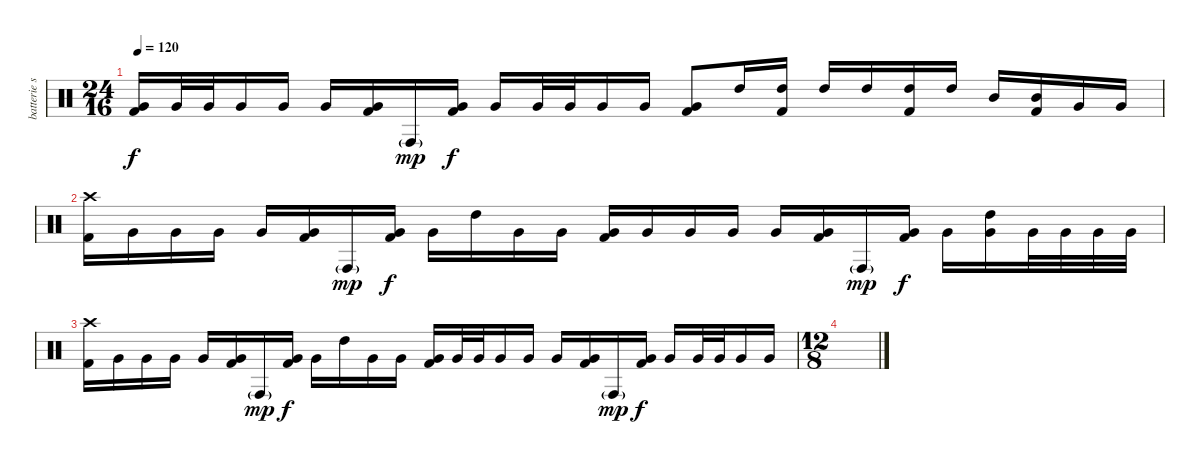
\track ("batterie sur toms" "batterie s") {instrument percussion}
\staff {score}
\articulation defaults
\ts (24 16)
\tempo 120
\clef neutral
\ks c
("Very Low Tom (hit)" "Kick (hit) 2").16{dy f} "Very Low Tom (hit)".32 "Very Low Tom (hit)".32 "Very Low Tom (hit)".16 "Very Low Tom (hit)".16 "Very Low Tom (hit)".16 ("Very Low Tom (hit)" "Kick (hit) 2").16 "Conga high (hit)"{g}.16{dy mp} ("Very Low Tom (hit)" "Kick (hit) 2").16{dy f} "Very Low Tom (hit)".16 "Very Low Tom (hit)".32 "Very Low Tom (hit)".32 "Very Low Tom (hit)".16 "Very Low Tom (hit)".16 ("Very Low Tom (hit)" "Kick (hit) 2").8 "High Tom (hit)".16 ("High Tom (hit)" "Kick (hit) 2").16 "High Tom (hit)".16 "High Tom (hit)".16 ("High Tom (hit)" "Kick (hit) 2").16 "High Tom (hit)".16 "Mid Tom (hit)".16 ("Mid Tom (hit)" "Kick (hit) 2").16 "Very Low Tom (hit)".16 "Very Low Tom (hit)".16 |
("Crash high (hit)" "Kick (hit) 2").16 "Very Low Tom (hit)".16 "Very Low Tom (hit)".16 "Very Low Tom (hit)".16 "Very Low Tom (hit)".16 ("Very Low Tom (hit)" "Kick (hit) 2").16 "Conga high (hit)"{g}.16{dy mp} ("Very Low Tom (hit)" "Kick (hit) 2").16{dy f} "Very Low Tom (hit)".16 "High Tom (hit)".16 "Very Low Tom (hit)".16 "Very Low Tom (hit)".16 ("Very Low Tom (hit)" "Kick (hit) 2").16 "Very Low Tom (hit)".16 "Very Low Tom (hit)".16 "Very Low Tom (hit)".16 "Very Low Tom (hit)".16 ("Very Low Tom (hit)" "Kick (hit) 2").16 "Conga high (hit)"{g}.16{dy mp} ("Very Low Tom (hit)" "Kick (hit) 2").16{dy f} "Very Low Tom (hit)".16 ("High Tom (hit)" "Very Low Tom (hit)").16 "Very Low Tom (hit)".32 "Very Low Tom (hit)".32 "Very Low Tom (hit)".32 "Very Low Tom (hit)".32 |
("Crash high (hit)" "Kick (hit) 2").16 "Very Low Tom (hit)".16 "Very Low Tom (hit)".16 "Very Low Tom (hit)".16 "Very Low Tom (hit)".16 ("Very Low Tom (hit)" "Kick (hit) 2").16 "Conga high (hit)"{g}.16{dy mp} ("Very Low Tom (hit)" "Kick (hit) 2").16{dy f} "Very Low Tom (hit)".16 "High Tom (hit)".16 "Very Low Tom (hit)".16 "Very Low Tom (hit)".16 ("Very Low Tom (hit)" "Kick (hit) 2").16 "Very Low Tom (hit)".32 "Very Low Tom (hit)".32 "Very Low Tom (hit)".16 "Very Low Tom (hit)".16 "Very Low Tom (hit)".16 ("Very Low Tom (hit)" "Kick (hit) 2").16 "Conga high (hit)"{g}.16{dy mp} ("Very Low Tom (hit)" "Kick (hit) 2").16{dy f} "Very Low Tom (hit)".16 "Very Low Tom (hit)".32 "Very Low Tom (hit)".32 "Very Low Tom (hit)".16 "Very Low Tom (hit)".16 |
\ts (12 8)
